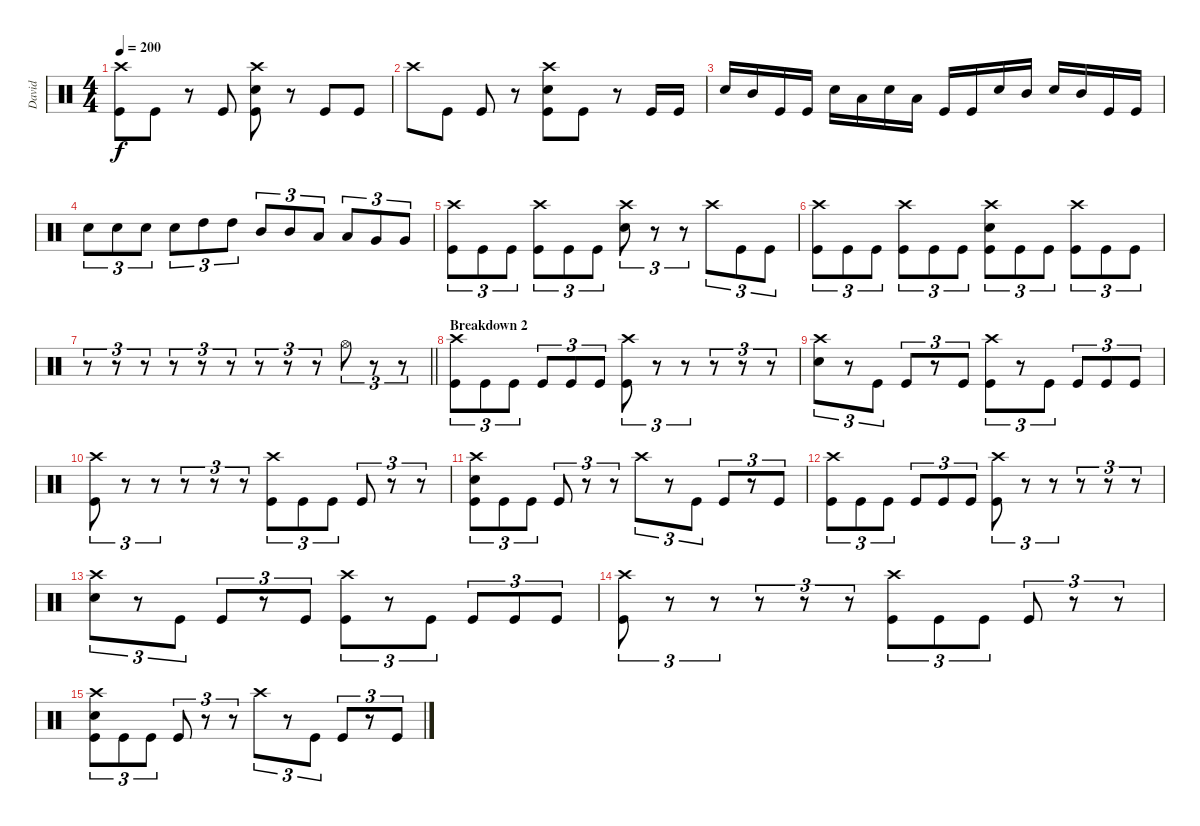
\track ("David" "David") {instrument percussion}
\staff {score}
\articulation defaults
\ts (4 4)
\tempo 200
\clef neutral
\ks c
("Crash high (hit)" "Kick (hit)").8{dy f} "Kick (hit)".8 r.8 "Kick (hit)".8 ("Crash high (hit)" "Electric Snare (hit)" "Kick (hit)").8 r.8 "Kick (hit)".8 "Kick (hit)".8 |
"Crash high (hit)".8 "Kick (hit)".8 "Kick (hit)".8 r.8 ("Crash high (hit)" "Electric Snare (hit)" "Kick (hit)").8 "Kick (hit)".8 r.8 "Kick (hit)".16 "Kick (hit)".16 |
"Electric Snare (hit)".16 "Mid Tom (hit)".16 "Kick (hit)".16 "Kick (hit)".16 "Electric Snare (hit)".16 "Low Tom (hit)".16 "Electric Snare (hit)".16 "Low Tom (hit)".16 "Kick (hit)".16 "Kick (hit)".16 "Electric Snare (hit)".16 "Mid Tom (hit)".16 "Electric Snare (hit)".16 "Mid Tom (hit)".16 "Kick (hit)".16 "Kick (hit)".16 |
"Electric Snare (hit)".8{tu (3 2)} "Electric Snare (hit)".8{tu (3 2)} "Electric Snare (hit)".8{tu (3 2)} "Electric Snare (hit)".8{tu (3 2)} "High Tom (hit)".8{tu (3 2)} "High Tom (hit)".8{tu (3 2)} "Mid Tom (hit)".8{tu (3 2)} "Mid Tom (hit)".8{tu (3 2)} "Low Tom (hit)".8{tu (3 2)} "Low Tom (hit)".8{tu (3 2)} "Very Low Tom (hit)".8{tu (3 2)} "Very Low Tom (hit)".8{tu (3 2)} |
("Crash high (hit)" "Kick (hit)").8{tu (3 2)} "Kick (hit)".8{tu (3 2)} "Kick (hit)".8{tu (3 2)} ("Crash high (hit)" "Kick (hit)").8{tu (3 2)} "Kick (hit)".8{tu (3 2)} "Kick (hit)".8{tu (3 2)} ("Crash high (hit)" "Electric Snare (hit)").8{tu (3 2)} r.8{tu (3 2)} r.8{tu (3 2)} "Crash high (hit)".8{tu (3 2)} "Kick (hit)".8{tu (3 2)} "Kick (hit)".8{tu (3 2)} |
("Crash high (hit)" "Kick (hit)").8{tu (3 2)} "Kick (hit)".8{tu (3 2)} "Kick (hit)".8{tu (3 2)} ("Crash high (hit)" "Kick (hit)").8{tu (3 2)} "Kick (hit)".8{tu (3 2)} "Kick (hit)".8{tu (3 2)} ("Crash high (hit)" "Electric Snare (hit)" "Kick (hit)").8{tu (3 2)} "Kick (hit)".8{tu (3 2)} "Kick (hit)".8{tu (3 2)} ("Crash high (hit)" "Kick (hit)").8{tu (3 2)} "Kick (hit)".8{tu (3 2)} "Kick (hit)".8{tu (3 2)} |
\barLineRight lightlight
r.8{tu (3 2)} r.8{tu (3 2)} r.8{tu (3 2)} r.8{tu (3 2)} r.8{tu (3 2)} r.8{tu (3 2)} r.8{tu (3 2)} r.8{tu (3 2)} r.8{tu (3 2)} "Hi-Hat (open)".8{tu (3 2)} r.8{tu (3 2)} r.8{tu (3 2)} |
\section ("" "Breakdown 2")
("Crash high (hit)" "Kick (hit)").8{tu (3 2)} "Kick (hit)".8{tu (3 2)} "Kick (hit)".8{tu (3 2)} "Kick (hit)".8{tu (3 2)} "Kick (hit)".8{tu (3 2)} "Kick (hit)".8{tu (3 2)} ("Crash high (hit)" "Kick (hit)").8{tu (3 2)} r.8{tu (3 2)} r.8{tu (3 2)} r.8{tu (3 2)} r.8{tu (3 2)} r.8{tu (3 2)} |
("Crash high (hit)" "Electric Snare (hit)").8{tu (3 2)} r.8{tu (3 2)} "Kick (hit)".8{tu (3 2)} "Kick (hit)".8{tu (3 2)} r.8{tu (3 2)} "Kick (hit)".8{tu (3 2)} ("Crash high (hit)" "Kick (hit)").8{tu (3 2)} r.8{tu (3 2)} "Kick (hit)".8{tu (3 2)} "Kick (hit)".8{tu (3 2)} "Kick (hit)".8{tu (3 2)} "Kick (hit)".8{tu (3 2)} |
("Crash high (hit)" "Kick (hit)").8{tu (3 2)} r.8{tu (3 2)} r.8{tu (3 2)} r.8{tu (3 2)} r.8{tu (3 2)} r.8{tu (3 2)} ("Crash high (hit)" "Kick (hit)").8{tu (3 2)} "Kick (hit)".8{tu (3 2)} "Kick (hit)".8{tu (3 2)} "Kick (hit)".8{tu (3 2)} r.8{tu (3 2)} r.8{tu (3 2)} |
("Crash high (hit)" "Electric Snare (hit)" "Kick (hit)").8{tu (3 2)} "Kick (hit)".8{tu (3 2)} "Kick (hit)".8{tu (3 2)} "Kick (hit)".8{tu (3 2)} r.8{tu (3 2)} r.8{tu (3 2)} "Crash high (hit)".8{tu (3 2)} r.8{tu (3 2)} "Kick (hit)".8{tu (3 2)} "Kick (hit)".8{tu (3 2)} r.8{tu (3 2)} "Kick (hit)".8{tu (3 2)} |
("Crash high (hit)" "Kick (hit)").8{tu (3 2)} "Kick (hit)".8{tu (3 2)} "Kick (hit)".8{tu (3 2)} "Kick (hit)".8{tu (3 2)} "Kick (hit)".8{tu (3 2)} "Kick (hit)".8{tu (3 2)} ("Crash high (hit)" "Kick (hit)").8{tu (3 2)} r.8{tu (3 2)} r.8{tu (3 2)} r.8{tu (3 2)} r.8{tu (3 2)} r.8{tu (3 2)} |
("Crash high (hit)" "Electric Snare (hit)").8{tu (3 2)} r.8{tu (3 2)} "Kick (hit)".8{tu (3 2)} "Kick (hit)".8{tu (3 2)} r.8{tu (3 2)} "Kick (hit)".8{tu (3 2)} ("Crash high (hit)" "Kick (hit)").8{tu (3 2)} r.8{tu (3 2)} "Kick (hit)".8{tu (3 2)} "Kick (hit)".8{tu (3 2)} "Kick (hit)".8{tu (3 2)} "Kick (hit)".8{tu (3 2)} |
("Crash high (hit)" "Kick (hit)").8{tu (3 2)} r.8{tu (3 2)} r.8{tu (3 2)} r.8{tu (3 2)} r.8{tu (3 2)} r.8{tu (3 2)} ("Crash high (hit)" "Kick (hit)").8{tu (3 2)} "Kick (hit)".8{tu (3 2)} "Kick (hit)".8{tu (3 2)} "Kick (hit)".8{tu (3 2)} r.8{tu (3 2)} r.8{tu (3 2)} |
("Crash high (hit)" "Electric Snare (hit)" "Kick (hit)").8{tu (3 2)} "Kick (hit)".8{tu (3 2)} "Kick (hit)".8{tu (3 2)} "Kick (hit)".8{tu (3 2)} r.8{tu (3 2)} r.8{tu (3 2)} "Crash high (hit)".8{tu (3 2)} r.8{tu (3 2)} "Kick (hit)".8{tu (3 2)} "Kick (hit)".8{tu (3 2)} r.8{tu (3 2)} "Kick (hit)".8{tu (3 2)}
